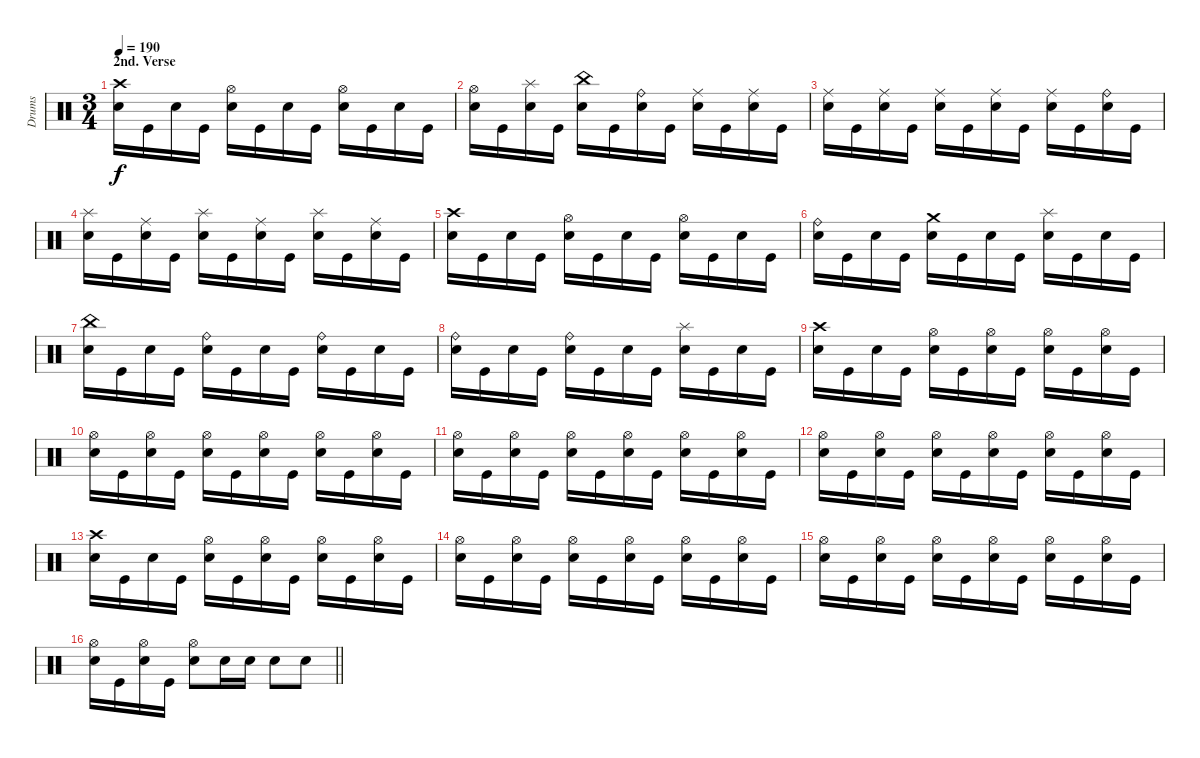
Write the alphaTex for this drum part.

\track ("Drums" "Drums") {instrument percussion}
\staff {score}
\articulation defaults
\ts (3 4)
\section ("" "2nd. Verse")
\tempo 190
\clef neutral
\ks c
("Crash high (hit)" "Electric Snare (hit)").16{dy f} "Kick (hit)".16 "Snare (hit) 2".16 "Kick (hit)".16 ("Hi-Hat (open)" "Snare (hit) 2").16 "Kick (hit)".16 "Electric Snare (hit)".16 "Kick (hit)".16 ("Hi-Hat (open)" "Snare (hit) 2").16 "Kick (hit)".16 "Electric Snare (hit)".16 "Kick (hit)".16 |
("Hi-Hat (open)" "Electric Snare (hit)").16 "Kick (hit)".16 ("Splash (hit)" "Snare (hit) 2").16 "Kick (hit)".16 ("China (hit)" "Snare (hit) 2").16 "Kick (hit)".16 ("Ride (bell)" "Electric Snare (hit)").16 "Kick (hit)".16 ("Ride (middle)" "Snare (hit) 2").16 "Kick (hit)".16 ("Ride (middle)" "Electric Snare (hit)").16 "Kick (hit)".16 |
("Ride (middle)" "Electric Snare (hit)").16 "Kick (hit)".16 ("Ride (middle)" "Snare (hit) 2").16 "Kick (hit)".16 ("Ride (middle)" "Snare (hit) 2").16 "Kick (hit)".16 ("Ride (middle)" "Electric Snare (hit)").16 "Kick (hit)".16 ("Ride (middle)" "Snare (hit) 2").16 "Kick (hit)".16 ("Ride (bell)" "Electric Snare (hit)").16 "Kick (hit)".16 |
("Splash (hit)" "Electric Snare (hit)").16 "Kick (hit)".16 ("Ride (middle)" "Snare (hit) 2").16 "Kick (hit)".16 ("Splash (hit)" "Snare (hit) 2").16 "Kick (hit)".16 ("Ride (middle)" "Electric Snare (hit)").16 "Kick (hit)".16 ("Splash (hit)" "Snare (hit) 2").16 "Kick (hit)".16 ("Ride (middle)" "Electric Snare (hit)").16 "Kick (hit)".16 |
("Crash high (hit)" "Electric Snare (hit)").16 "Kick (hit)".16 "Snare (hit) 2".16 "Kick (hit)".16 ("Hi-Hat (open)" "Snare (hit) 2").16 "Kick (hit)".16 "Electric Snare (hit)".16 "Kick (hit)".16 ("Hi-Hat (open)" "Snare (hit) 2").16 "Kick (hit)".16 "Electric Snare (hit)".16 "Kick (hit)".16 |
("Ride (bell)" "Electric Snare (hit)").16 "Kick (hit)".16 "Snare (hit) 2".16 "Kick (hit)".16 ("Crash medium (hit)" "Snare (hit) 2").16 "Kick (hit)".16 "Electric Snare (hit)".16 "Kick (hit)".16 ("Splash (hit)" "Snare (hit) 2").16 "Kick (hit)".16 "Electric Snare (hit)".16 "Kick (hit)".16 |
("China (hit)" "Electric Snare (hit)").16 "Kick (hit)".16 "Snare (hit) 2".16 "Kick (hit)".16 ("Ride (bell)" "Snare (hit) 2").16 "Kick (hit)".16 "Electric Snare (hit)".16 "Kick (hit)".16 ("Ride (bell)" "Snare (hit) 2").16 "Kick (hit)".16 "Electric Snare (hit)".16 "Kick (hit)".16 |
("Ride (bell)" "Electric Snare (hit)").16 "Kick (hit)".16 "Snare (hit) 2".16 "Kick (hit)".16 ("Ride (bell)" "Snare (hit) 2").16 "Kick (hit)".16 "Electric Snare (hit)".16 "Kick (hit)".16 ("Splash (hit)" "Snare (hit) 2").16 "Kick (hit)".16 "Electric Snare (hit)".16 "Kick (hit)".16 |
("Crash high (hit)" "Electric Snare (hit)").16 "Kick (hit)".16 "Snare (hit) 2".16 "Kick (hit)".16 ("Hi-Hat (open)" "Snare (hit) 2").16 "Kick (hit)".16 ("Hi-Hat (open)" "Electric Snare (hit)").16 "Kick (hit)".16 ("Hi-Hat (open)" "Snare (hit) 2").16 "Kick (hit)".16 ("Hi-Hat (open)" "Electric Snare (hit)").16 "Kick (hit)".16 |
("Hi-Hat (open)" "Electric Snare (hit)").16 "Kick (hit)".16 ("Hi-Hat (open)" "Snare (hit) 2").16 "Kick (hit)".16 ("Hi-Hat (open)" "Snare (hit) 2").16 "Kick (hit)".16 ("Hi-Hat (open)" "Electric Snare (hit)").16 "Kick (hit)".16 ("Hi-Hat (open)" "Snare (hit) 2").16 "Kick (hit)".16 ("Hi-Hat (open)" "Electric Snare (hit)").16 "Kick (hit)".16 |
("Hi-Hat (open)" "Electric Snare (hit)").16 "Kick (hit)".16 ("Hi-Hat (open)" "Snare (hit) 2").16 "Kick (hit)".16 ("Hi-Hat (open)" "Snare (hit) 2").16 "Kick (hit)".16 ("Hi-Hat (open)" "Electric Snare (hit)").16 "Kick (hit)".16 ("Hi-Hat (open)" "Snare (hit) 2").16 "Kick (hit)".16 ("Hi-Hat (open)" "Electric Snare (hit)").16 "Kick (hit)".16 |
("Hi-Hat (open)" "Electric Snare (hit)").16 "Kick (hit)".16 ("Hi-Hat (open)" "Snare (hit) 2").16 "Kick (hit)".16 ("Hi-Hat (open)" "Snare (hit) 2").16 "Kick (hit)".16 ("Hi-Hat (open)" "Electric Snare (hit)").16 "Kick (hit)".16 ("Hi-Hat (open)" "Snare (hit) 2").16 "Kick (hit)".16 ("Hi-Hat (open)" "Electric Snare (hit)").16 "Kick (hit)".16 |
("Crash high (hit)" "Electric Snare (hit)").16 "Kick (hit)".16 "Snare (hit) 2".16 "Kick (hit)".16 ("Hi-Hat (open)" "Snare (hit) 2").16 "Kick (hit)".16 ("Hi-Hat (open)" "Electric Snare (hit)").16 "Kick (hit)".16 ("Hi-Hat (open)" "Snare (hit) 2").16 "Kick (hit)".16 ("Hi-Hat (open)" "Electric Snare (hit)").16 "Kick (hit)".16 |
("Hi-Hat (open)" "Electric Snare (hit)").16 "Kick (hit)".16 ("Hi-Hat (open)" "Snare (hit) 2").16 "Kick (hit)".16 ("Hi-Hat (open)" "Snare (hit) 2").16 "Kick (hit)".16 ("Hi-Hat (open)" "Electric Snare (hit)").16 "Kick (hit)".16 ("Hi-Hat (open)" "Snare (hit) 2").16 "Kick (hit)".16 ("Hi-Hat (open)" "Electric Snare (hit)").16 "Kick (hit)".16 |
("Hi-Hat (open)" "Electric Snare (hit)").16 "Kick (hit)".16 ("Hi-Hat (open)" "Snare (hit) 2").16 "Kick (hit)".16 ("Hi-Hat (open)" "Snare (hit) 2").16 "Kick (hit)".16 ("Hi-Hat (open)" "Electric Snare (hit)").16 "Kick (hit)".16 ("Hi-Hat (open)" "Snare (hit) 2").16 "Kick (hit)".16 ("Hi-Hat (open)" "Electric Snare (hit)").16 "Kick (hit)".16 |
\barLineRight lightlight
("Hi-Hat (open)" "Electric Snare (hit)").16 "Kick (hit)".16 ("Hi-Hat (open)" "Snare (hit) 2").16 "Kick (hit)".16 ("Hi-Hat (open)" "Snare (hit) 2").8 "Electric Snare (hit)".16 "Electric Snare (hit)".16 "Electric Snare (hit)".8 "Electric Snare (hit)".8
